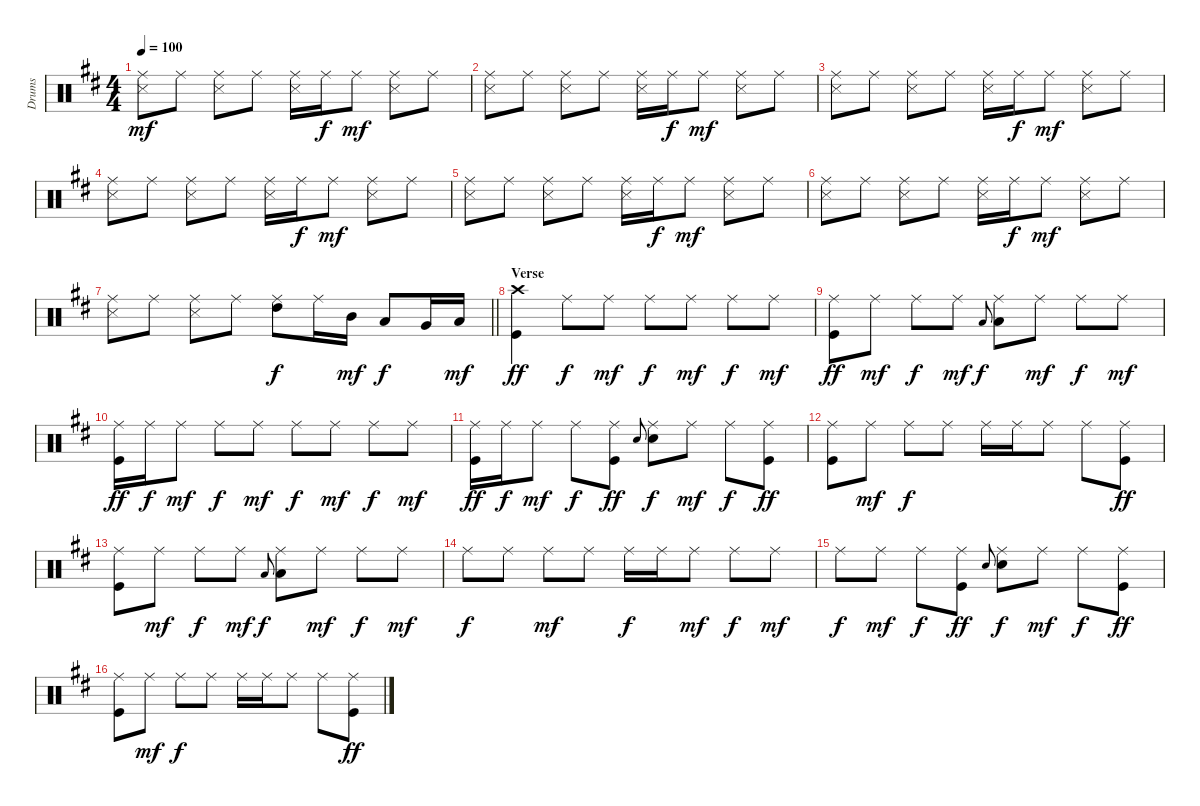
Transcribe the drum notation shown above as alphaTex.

\track ("Drums" "Drums") {instrument percussion}
\staff {score}
\articulation defaults
\ts (4 4)
\tempo 100
\clef neutral
\ks d
("Ride (middle)" "Snare (side stick) 3").8{dy mf} "Ride (middle)".8 ("Ride (middle)" "Snare (side stick) 3").8 "Ride (middle)".8 ("Ride (middle)" "Snare (side stick) 3").16 "Ride (middle)".16{dy f} "Ride (middle)".8{dy mf} ("Ride (middle)" "Snare (side stick) 3").8 "Ride (middle)".8 |
("Ride (middle)" "Snare (side stick) 3").8 "Ride (middle)".8 ("Ride (middle)" "Snare (side stick) 3").8 "Ride (middle)".8 ("Ride (middle)" "Snare (side stick) 3").16 "Ride (middle)".16{dy f} "Ride (middle)".8{dy mf} ("Ride (middle)" "Snare (side stick) 3").8 "Ride (middle)".8 |
("Ride (middle)" "Snare (side stick) 3").8 "Ride (middle)".8 ("Ride (middle)" "Snare (side stick) 3").8 "Ride (middle)".8 ("Ride (middle)" "Snare (side stick) 3").16 "Ride (middle)".16{dy f} "Ride (middle)".8{dy mf} ("Ride (middle)" "Snare (side stick) 3").8 "Ride (middle)".8 |
("Ride (middle)" "Snare (side stick) 3").8 "Ride (middle)".8 ("Ride (middle)" "Snare (side stick) 3").8 "Ride (middle)".8 ("Ride (middle)" "Snare (side stick) 3").16 "Ride (middle)".16{dy f} "Ride (middle)".8{dy mf} ("Ride (middle)" "Snare (side stick) 3").8 "Ride (middle)".8 |
("Ride (middle)" "Snare (side stick) 3").8 "Ride (middle)".8 ("Ride (middle)" "Snare (side stick) 3").8 "Ride (middle)".8 ("Ride (middle)" "Snare (side stick) 3").16 "Ride (middle)".16{dy f} "Ride (middle)".8{dy mf} ("Ride (middle)" "Snare (side stick) 3").8 "Ride (middle)".8 |
("Ride (middle)" "Snare (side stick) 3").8 "Ride (middle)".8 ("Ride (middle)" "Snare (side stick) 3").8 "Ride (middle)".8 ("Ride (middle)" "Snare (side stick) 3").16 "Ride (middle)".16{dy f} "Ride (middle)".8{dy mf} ("Ride (middle)" "Snare (side stick) 3").8 "Ride (middle)".8 |
\barLineRight lightlight
("Ride (middle)" "Snare (side stick) 3").8 "Ride (middle)".8 ("Ride (middle)" "Snare (side stick) 3").8 "Ride (middle)".8 ("Ride (middle)" "High Tom (hit)").8{dy f} "Ride (middle)".16 "Mid Tom (hit)".16{dy mf} "Low Tom (hit)".8{dy f} "Very Low Tom (hit)".16 "Low Floor Tom (hit)".16{dy mf} |
\section ("" "Verse")
("Crash high (hit)" "Kick (hit)").4{dy ff} "Ride (middle)".8{dy f} "Ride (middle)".8{dy mf} "Ride (middle)".8{dy f} "Ride (middle)".8{dy mf} "Ride (middle)".8{dy f} "Ride (middle)".8{dy mf} |
("Ride (middle)" "Kick (hit)").8{dy ff} "Ride (middle)".8{dy mf} "Ride (middle)".8{dy f} "Ride (middle)".8{dy mf} "Low Floor Tom (hit)".8{gr onbeat dy f} ("Ride (middle)" "Low Floor Tom (hit)").8 "Ride (middle)".8{dy mf} "Ride (middle)".8{dy f} "Ride (middle)".8{dy mf} |
("Ride (middle)" "Kick (hit)").16{dy ff} "Ride (middle)".16{dy f} "Ride (middle)".8{dy mf} "Ride (middle)".8{dy f} "Ride (middle)".8{dy mf} "Ride (middle)".8{dy f} "Ride (middle)".8{dy mf} "Ride (middle)".8{dy f} "Ride (middle)".8{dy mf} |
("Ride (middle)" "Kick (hit)").16{dy ff} "Ride (middle)".16{dy f} "Ride (middle)".8{dy mf} "Ride (middle)".8{dy f} ("Ride (middle)" "Kick (hit)").8{dy ff} "Electric Snare (hit)".8{gr onbeat} ("Ride (middle)" "Electric Snare (hit)").8{dy f} "Ride (middle)".8{dy mf} "Ride (middle)".8{dy f} ("Ride (middle)" "Kick (hit)").8{dy ff} |
("Ride (middle)" "Kick (hit)").8 "Ride (middle)".8{dy mf} "Ride (middle)".8{dy f} "Ride (middle)".8 "Ride (middle)".16 "Ride (middle)".16 "Ride (middle)".8 "Ride (middle)".8 ("Ride (middle)" "Kick (hit)").8{dy ff} |
("Ride (middle)" "Kick (hit)").8 "Ride (middle)".8{dy mf} "Ride (middle)".8{dy f} "Ride (middle)".8{dy mf} "Low Floor Tom (hit)".8{gr onbeat dy f} ("Ride (middle)" "Low Floor Tom (hit)").8 "Ride (middle)".8{dy mf} "Ride (middle)".8{dy f} "Ride (middle)".8{dy mf} |
"Ride (middle)".8{dy f} "Ride (middle)".8 "Ride (middle)".8{dy mf} "Ride (middle)".8 "Ride (middle)".16{dy f} "Ride (middle)".16 "Ride (middle)".8{dy mf} "Ride (middle)".8{dy f} "Ride (middle)".8{dy mf} |
"Ride (middle)".8{dy f} "Ride (middle)".8{dy mf} "Ride (middle)".8{dy f} ("Ride (middle)" "Kick (hit)").8{dy ff} "Electric Snare (hit)".8{gr onbeat} ("Ride (middle)" "Electric Snare (hit)").8{dy f} "Ride (middle)".8{dy mf} "Ride (middle)".8{dy f} ("Ride (middle)" "Kick (hit)").8{dy ff} |
("Ride (middle)" "Kick (hit)").8 "Ride (middle)".8{dy mf} "Ride (middle)".8{dy f} "Ride (middle)".8 "Ride (middle)".16 "Ride (middle)".16 "Ride (middle)".8 "Ride (middle)".8 ("Ride (middle)" "Kick (hit)").8{dy ff}
